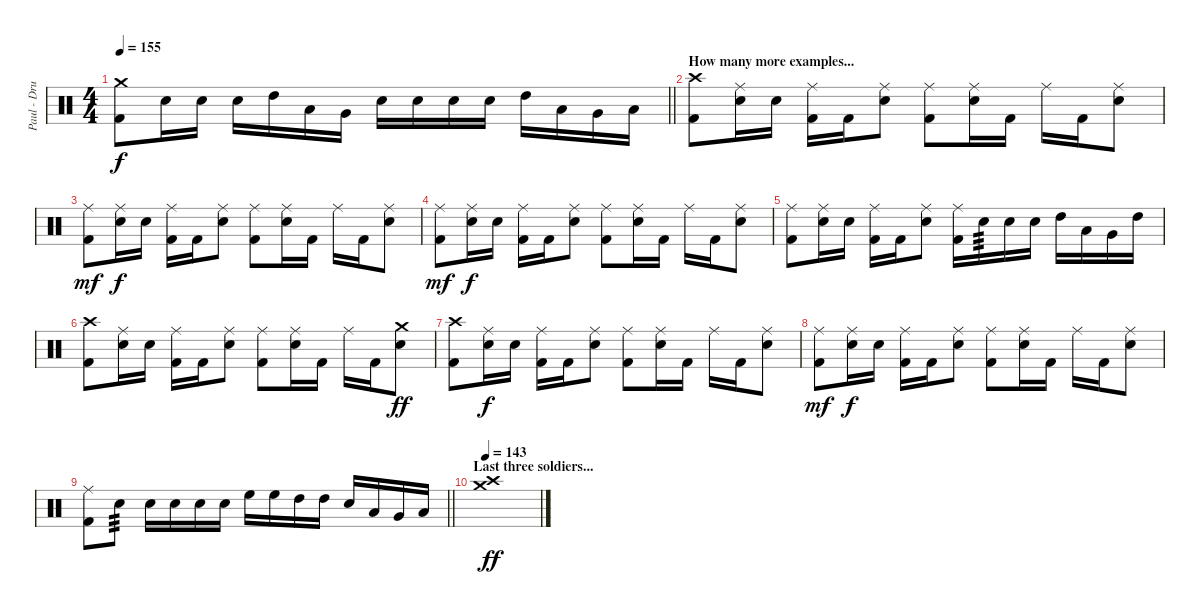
\track ("Paul - Drums" "Paul - Dru") {instrument percussion}
\staff {score}
\articulation defaults
\ts (4 4)
\tempo 155
\clef neutral
\barLineRight lightlight
\ks c
("Crash medium (hit)" "Kick (hit) 2").8{dy f} "Electric Snare (hit)".16 "Electric Snare (hit)".16 "Electric Snare (hit)".16 "High Tom (hit)".16 "Low Tom (hit)".16 "Very Low Tom (hit)".16 "Electric Snare (hit)".16 "Electric Snare (hit)".16 "Electric Snare (hit)".16 "Electric Snare (hit)".16 "High Tom (hit)".16 "Low Tom (hit)".16 "Very Low Tom (hit)".16 "Low Floor Tom (hit)".16 |
\section ("" "How many more examples...")
("Crash high (hit)" "Kick (hit) 2").8 ("Ride (middle)" "Electric Snare (hit)").16 "Electric Snare (hit)".16 ("Ride (middle)" "Kick (hit) 2").16 "Kick (hit) 2".16 ("Ride (middle)" "Electric Snare (hit)").8 ("Ride (middle)" "Kick (hit) 2").8 ("Ride (middle)" "Electric Snare (hit)").16 "Kick (hit) 2".16 "Ride (middle)".16 "Kick (hit) 2".16 ("Ride (middle)" "Electric Snare (hit)").8 |
("Ride (middle)" "Kick (hit) 2").8{dy mf} ("Ride (middle)" "Electric Snare (hit)").16{dy f} "Electric Snare (hit)".16 ("Ride (middle)" "Kick (hit) 2").16 "Kick (hit) 2".16 ("Ride (middle)" "Electric Snare (hit)").8 ("Ride (middle)" "Kick (hit) 2").8 ("Ride (middle)" "Electric Snare (hit)").16 "Kick (hit) 2".16 "Ride (middle)".16 "Kick (hit) 2".16 ("Ride (middle)" "Electric Snare (hit)").8 |
("Ride (middle)" "Kick (hit) 2").8{dy mf} ("Ride (middle)" "Electric Snare (hit)").16{dy f} "Electric Snare (hit)".16 ("Ride (middle)" "Kick (hit) 2").16 "Kick (hit) 2".16 ("Ride (middle)" "Electric Snare (hit)").8 ("Ride (middle)" "Kick (hit) 2").8 ("Ride (middle)" "Electric Snare (hit)").16 "Kick (hit) 2".16 "Ride (middle)".16 "Kick (hit) 2".16 ("Ride (middle)" "Electric Snare (hit)").8 |
("Ride (middle)" "Kick (hit) 2").8 ("Ride (middle)" "Electric Snare (hit)").16 "Electric Snare (hit)".16 ("Ride (middle)" "Kick (hit) 2").16 "Kick (hit) 2".16 ("Ride (middle)" "Electric Snare (hit)").8 ("Ride (middle)" "Kick (hit) 2").16 "Electric Snare (hit)".16{tp 3} "Electric Snare (hit)".16 "Electric Snare (hit)".16 "High Tom (hit)".16 "Low Tom (hit)".16 "Very Low Tom (hit)".16 "High Tom (hit)".16 |
("Crash high (hit)" "Kick (hit) 2").8 ("Ride (middle)" "Electric Snare (hit)").16 "Electric Snare (hit)".16 ("Ride (middle)" "Kick (hit) 2").16 "Kick (hit) 2".16 ("Ride (middle)" "Electric Snare (hit)").8 ("Ride (middle)" "Kick (hit) 2").8 ("Ride (middle)" "Electric Snare (hit)").16 "Kick (hit) 2".16 "Ride (middle)".16 "Kick (hit) 2".16 ("Crash medium (hit)" "Electric Snare (hit)").8{dy ff} |
("Crash high (hit)" "Kick (hit) 2").8 ("Ride (middle)" "Electric Snare (hit)").16{dy f} "Electric Snare (hit)".16 ("Ride (middle)" "Kick (hit) 2").16 "Kick (hit) 2".16 ("Ride (middle)" "Electric Snare (hit)").8 ("Ride (middle)" "Kick (hit) 2").8 ("Ride (middle)" "Electric Snare (hit)").16 "Kick (hit) 2".16 "Ride (middle)".16 "Kick (hit) 2".16 ("Ride (middle)" "Electric Snare (hit)").8 |
("Ride (middle)" "Kick (hit) 2").8{dy mf} ("Ride (middle)" "Electric Snare (hit)").16{dy f} "Electric Snare (hit)".16 ("Ride (middle)" "Kick (hit) 2").16 "Kick (hit) 2".16 ("Ride (middle)" "Electric Snare (hit)").8 ("Ride (middle)" "Kick (hit) 2").8 ("Ride (middle)" "Electric Snare (hit)").16 "Kick (hit) 2".16 "Ride (middle)".16 "Kick (hit) 2".16 ("Ride (middle)" "Electric Snare (hit)").8 |
\barLineRight lightlight
("Ride (middle)" "Kick (hit) 2").8 "Electric Snare (hit)".8{tp 3} "Electric Snare (hit)".16 "Electric Snare (hit)".16 "Electric Snare (hit)".16 "Electric Snare (hit)".16 "High Floor Tom (hit)".16 "High Floor Tom (hit)".16 "High Tom (hit)".16 "High Tom (hit)".16 "Electric Snare (hit)".16 "Low Tom (hit)".16 "Very Low Tom (hit)".16 "Low Floor Tom (hit)".16 |
\section ("" "Last three soldiers...")
\tempo 143
("Crash medium (hit)" "Crash high (hit)").1{dy ff}
